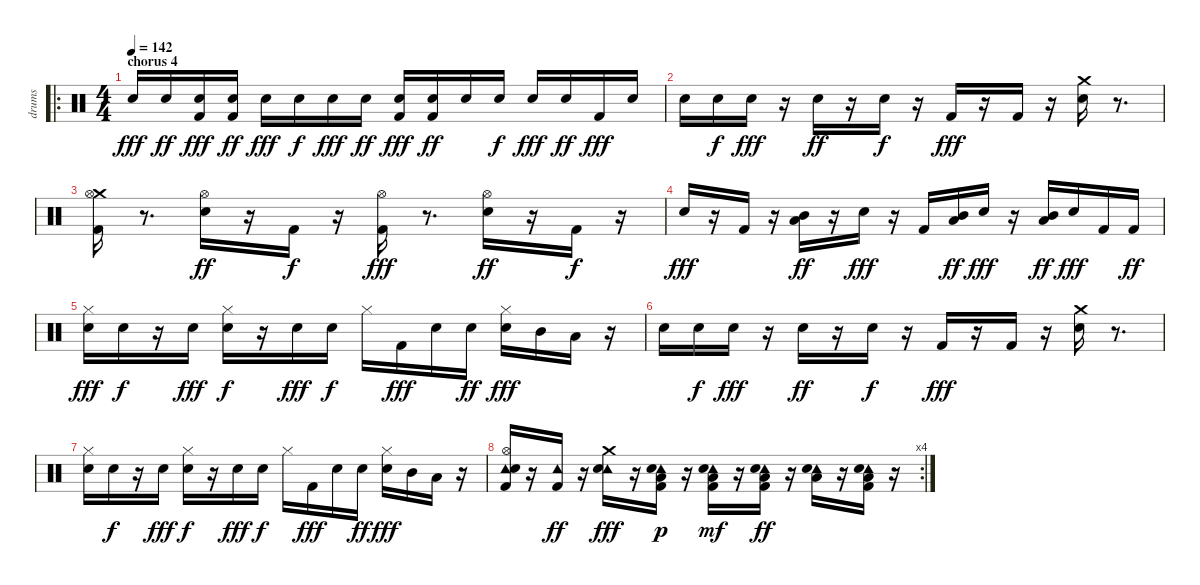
\track ("drums" "drums") {instrument percussion}
\staff {score}
\articulation defaults
\ro
\ts (4 4)
\section ("" "chorus 4")
\tempo 142
\clef neutral
\ks c "Snare (hit) 2".16{dy fff} "Snare (hit) 2".16{dy ff}
("Snare (hit) 2" "Kick (hit) 2").16{dy fff} ("Snare (hit) 2" "Kick (hit) 2").16{dy ff} "Snare (hit) 2".16{dy fff} "Snare (hit) 2".16{dy f} "Snare (hit) 2".16{dy fff} "Snare (hit) 2".16{dy ff} ("Snare (hit) 2" "Kick (hit) 2").16{dy fff} ("Snare (hit) 2" "Kick (hit) 2").16{dy ff} "Snare (hit) 2".16 "Snare (hit) 2".16{dy f} "Snare (hit) 2".16{dy fff} "Snare (hit) 2".16{dy ff} "Kick (hit) 2".16{dy fff} "Snare (hit) 2".16 |
\section ("" "")
"Snare (hit) 2".16 "Snare (hit) 2".16{dy f} "Snare (hit) 2".16{dy fff} r.16 "Snare (hit) 2".16{dy ff} r.16 "Snare (hit) 2".16{dy f} r.16 "Kick (hit) 2".16{dy fff} r.16 "Kick (hit) 2".16 r.16 ("Crash medium (hit)" "Snare (hit) 2").16 r.8{d} |
("Crash medium (hit)" "Hi-Hat (open)" "Kick (hit) 2").16 r.8{d} ("Hi-Hat (open)" "Snare (hit) 2").16{dy ff} r.16 "Kick (hit) 2".16{dy f} r.16 ("Hi-Hat (open)" "Kick (hit) 2").16{dy fff} r.8{d} ("Hi-Hat (open)" "Snare (hit) 2").16{dy ff} r.16 "Kick (hit) 2".16{dy f} r.16 |
"Snare (hit) 2".16{dy fff} r.16 "Kick (hit) 2".16 r.16 ("Mid Tom (hit)" "Low Floor Tom (hit)").16{dy ff} r.16 "Snare (hit) 2".16{dy fff} r.16 "Kick (hit) 2".16 ("Mid Tom (hit)" "Low Floor Tom (hit)").16{dy ff} "Snare (hit) 2".16{dy fff} r.16 ("Mid Tom (hit)" "Low Floor Tom (hit)").16{dy ff} "Snare (hit) 2".16{dy fff} "Kick (hit) 2".16 "Kick (hit) 2".16{dy ff} |
("Hi-Hat (closed)" "Snare (hit) 2").16{dy fff} "Snare (hit) 2".16{dy f} r.16 "Snare (hit) 2".16{dy fff} ("Hi-Hat (closed)" "Snare (hit) 2").16{dy f} r.16 "Snare (hit) 2".16{dy fff} "Snare (hit) 2".16{dy f} "Hi-Hat (closed)".16 "Kick (hit) 2".16{dy fff} "Snare (hit) 2".16 "Snare (hit) 2".16{dy ff} ("Hi-Hat (closed)" "Snare (hit) 2").16{dy fff} "Mid Tom (hit)".16 "Low Floor Tom (hit)".16 r.16 |
"Snare (hit) 2".16 "Snare (hit) 2".16{dy f} "Snare (hit) 2".16{dy fff} r.16 "Snare (hit) 2".16{dy ff} r.16 "Snare (hit) 2".16{dy f} r.16 "Kick (hit) 2".16{dy fff} r.16 "Kick (hit) 2".16 r.16 ("Crash medium (hit)" "Snare (hit) 2").16 r.8{d} |
("Hi-Hat (closed)" "Snare (hit) 2").16 "Snare (hit) 2".16{dy f} r.16 "Snare (hit) 2".16{dy fff} ("Hi-Hat (closed)" "Snare (hit) 2").16{dy f} r.16 "Snare (hit) 2".16{dy fff} "Snare (hit) 2".16{dy f} "Hi-Hat (closed)".16 "Kick (hit) 2".16{dy fff} "Snare (hit) 2".16 "Snare (hit) 2".16{dy ff} ("Hi-Hat (closed)" "Snare (hit) 2").16{dy fff} "Mid Tom (hit)".16 "Low Floor Tom (hit)".16 r.16 |
\rc 4
("Tambourine (hit)" "Hi-Hat (open)" "Snare (hit) 2" "Kick (hit) 2").16 r.16 ("Tambourine (hit)" "Kick (hit) 2").16{dy ff} r.16 ("Tambourine (hit)" "Crash medium (hit)" "Snare (hit) 2").16{dy fff} r.16 ("Tambourine (hit)" "Low Floor Tom (hit)" "Snare (hit) 2" "Kick (hit) 2").16{dy p} r.16 ("Tambourine (hit)" "Low Floor Tom (hit)" "Snare (hit) 2" "Kick (hit) 2").16{dy mf} r.16 ("Tambourine (hit)" "Low Floor Tom (hit)" "Snare (hit) 2" "Kick (hit) 2").16{dy ff} r.16 ("Tambourine (hit)" "Low Floor Tom (hit)" "Snare (hit) 2").16 r.16 ("Tambourine (hit)" "Low Floor Tom (hit)" "Snare (hit) 2" "Kick (hit) 2").16 r.16
